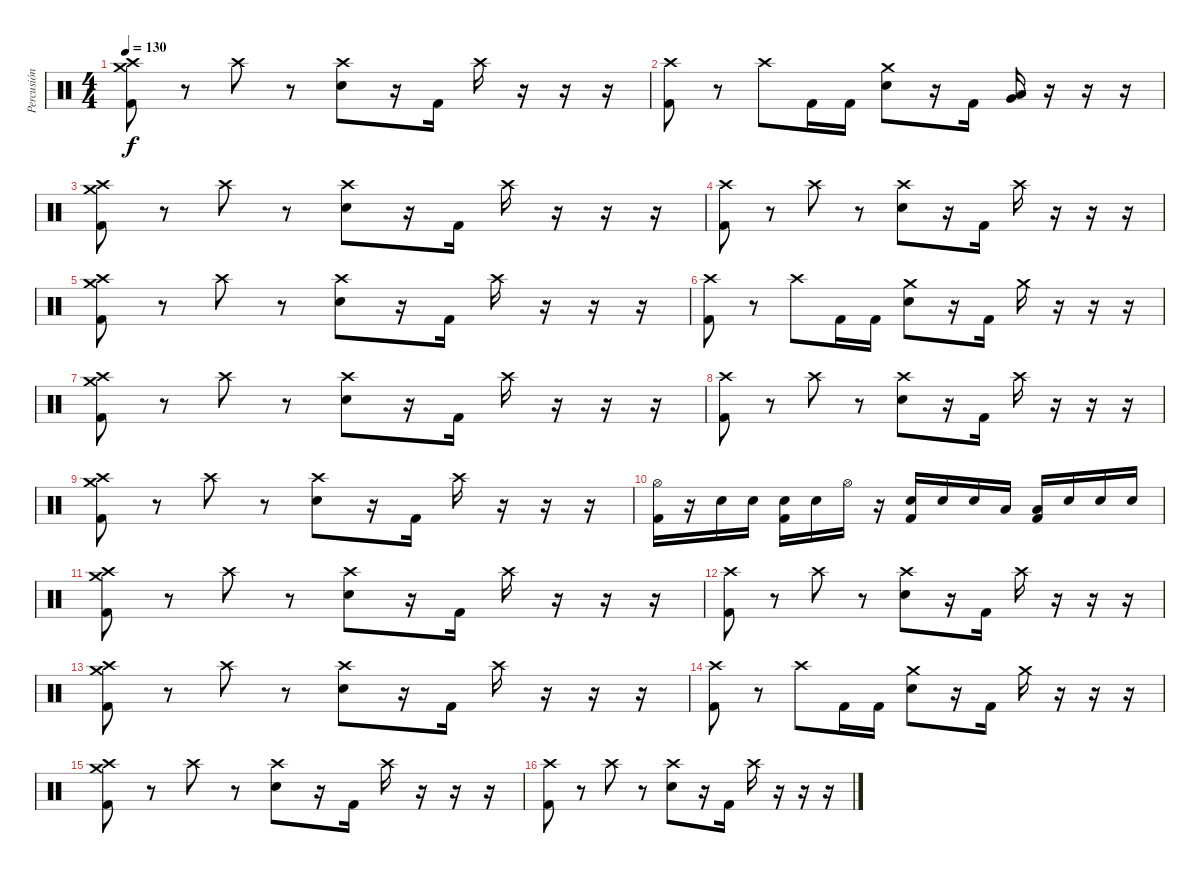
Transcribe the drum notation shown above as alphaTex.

\track ("Percusión" "Percusión") {instrument percussion}
\staff {score}
\articulation defaults
\ts (4 4)
\tempo 130
\clef neutral
\ks c
("Crash medium (hit)" "Crash high (hit)" "Kick (hit) 2").8{dy f volume 16} r.8 "Crash high (hit)".8 r.8 ("Crash high (hit)" "Electric Snare (hit)").8 r.16 "Kick (hit) 2".16 "Crash high (hit)".16 r.16 r.16 r.16 |
("Crash high (hit)" "Kick (hit) 2").8 r.8 "Crash high (hit)".8 "Kick (hit) 2".16 "Kick (hit) 2".16 ("Crash medium (hit)" "Electric Snare (hit)").8 r.16 "Kick (hit) 2".16 ("Low Tom (hit)" "Very Low Tom (hit)").16{bu 480} r.16 r.16 r.16 |
("Crash medium (hit)" "Crash high (hit)" "Kick (hit) 2").8 r.8 "Crash high (hit)".8 r.8 ("Crash high (hit)" "Electric Snare (hit)").8 r.16 "Kick (hit) 2".16 "Crash high (hit)".16 r.16 r.16 r.16 |
("Crash high (hit)" "Kick (hit) 2").8 r.8 "Crash high (hit)".8 r.8 ("Crash high (hit)" "Electric Snare (hit)").8 r.16 "Kick (hit) 2".16 "Crash high (hit)".16 r.16 r.16 r.16 |
("Crash medium (hit)" "Crash high (hit)" "Kick (hit) 2").8 r.8 "Crash high (hit)".8 r.8 ("Crash high (hit)" "Electric Snare (hit)").8 r.16 "Kick (hit) 2".16 "Crash high (hit)".16 r.16 r.16 r.16 |
("Crash high (hit)" "Kick (hit) 2").8 r.8 "Crash high (hit)".8 "Kick (hit) 2".16 "Kick (hit) 2".16 ("Crash medium (hit)" "Electric Snare (hit)").8 r.16 "Kick (hit) 2".16 "Crash medium (hit)".16 r.16 r.16 r.16 |
("Crash medium (hit)" "Crash high (hit)" "Kick (hit) 2").8 r.8 "Crash high (hit)".8 r.8 ("Crash high (hit)" "Electric Snare (hit)").8 r.16 "Kick (hit) 2".16 "Crash high (hit)".16 r.16 r.16 r.16 |
("Crash high (hit)" "Kick (hit) 2").8 r.8 "Crash high (hit)".8 r.8 ("Crash high (hit)" "Electric Snare (hit)").8 r.16 "Kick (hit) 2".16 "Crash high (hit)".16 r.16 r.16 r.16 |
("Crash medium (hit)" "Crash high (hit)" "Kick (hit) 2").8 r.8 "Crash high (hit)".8 r.8 ("Crash high (hit)" "Electric Snare (hit)").8 r.16 "Kick (hit) 2".16 "Crash high (hit)".16 r.16 r.16 r.16 |
("Hi-Hat (open)" "Kick (hit) 2").16 r.16 "Electric Snare (hit)".16 "Electric Snare (hit)".16 ("Electric Snare (hit)" "Kick (hit) 2").16 "Electric Snare (hit)".16 "Hi-Hat (open)".16 r.16 ("Electric Snare (hit)" "Kick (hit) 2").16 "Electric Snare (hit)".16 "Electric Snare (hit)".16 "Low Tom (hit)".16 ("Low Tom (hit)" "Kick (hit) 2").16 "Electric Snare (hit)".16 "Electric Snare (hit)".16 "Electric Snare (hit)".16 |
("Crash medium (hit)" "Crash high (hit)" "Kick (hit) 2").8 r.8 "Crash high (hit)".8 r.8 ("Crash high (hit)" "Electric Snare (hit)").8 r.16 "Kick (hit) 2".16 "Crash high (hit)".16 r.16 r.16 r.16 |
("Crash high (hit)" "Kick (hit) 2").8 r.8 "Crash high (hit)".8 r.8 ("Crash high (hit)" "Electric Snare (hit)").8 r.16 "Kick (hit) 2".16 "Crash high (hit)".16 r.16 r.16 r.16 |
("Crash medium (hit)" "Crash high (hit)" "Kick (hit) 2").8 r.8 "Crash high (hit)".8 r.8 ("Crash high (hit)" "Electric Snare (hit)").8 r.16 "Kick (hit) 2".16 "Crash high (hit)".16 r.16 r.16 r.16 |
("Crash high (hit)" "Kick (hit) 2").8 r.8 "Crash high (hit)".8 "Kick (hit) 2".16 "Kick (hit) 2".16 ("Crash medium (hit)" "Electric Snare (hit)").8 r.16 "Kick (hit) 2".16 "Crash medium (hit)".16 r.16 r.16 r.16 |
("Crash medium (hit)" "Crash high (hit)" "Kick (hit) 2").8 r.8 "Crash high (hit)".8 r.8 ("Crash high (hit)" "Electric Snare (hit)").8 r.16 "Kick (hit) 2".16 "Crash high (hit)".16 r.16 r.16 r.16 |
("Crash high (hit)" "Kick (hit) 2").8 r.8 "Crash high (hit)".8 r.8 ("Crash high (hit)" "Electric Snare (hit)").8 r.16 "Kick (hit) 2".16 "Crash high (hit)".16 r.16 r.16 r.16
